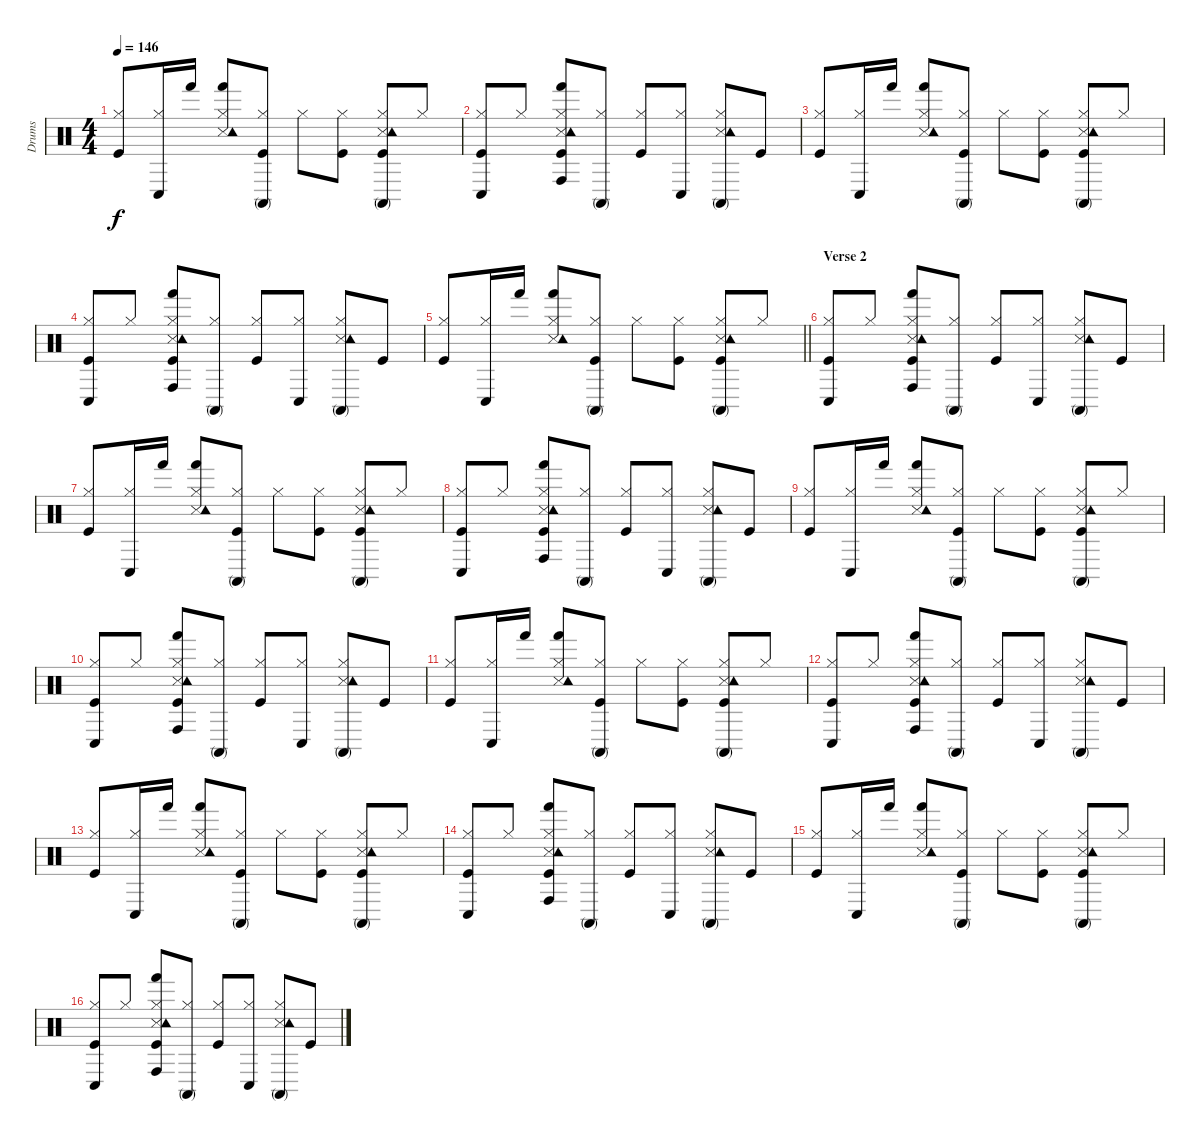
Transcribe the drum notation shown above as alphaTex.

\track ("Drums" "Drums") {instrument percussion}
\staff {score}
\articulation defaults
\ts (4 4)
\tempo 146
\clef neutral
\ks c
("Kick (hit)" "Hi-Hat (closed)").8{dy f} ("Hi-Hat (closed)" "Conga low (hit)").16 "Hand (hit)".16 ("Snare (side stick) 3" "Hi-Hat (closed)" "Tambourine (hit)" "Hand (hit)").8 ("Kick (hit)" "Hi-Hat (closed)" "Conga high (mute)").8 "Hi-Hat (closed)".8 ("Kick (hit)" "Hi-Hat (closed)").8 ("Kick (hit)" "Snare (side stick) 3" "Hi-Hat (closed)" "Tambourine (hit)" "Conga high (mute)").8 "Hi-Hat (closed)".8 |
("Kick (hit)" "Hi-Hat (closed)" "Conga low (hit)").8 "Hi-Hat (closed)".8 ("Kick (hit)" "Snare (side stick) 3" "Hi-Hat (closed)" "Tambourine (hit)" "Hand (hit)" "Conga high (hit)").8 ("Hi-Hat (closed)" "Conga high (mute)").8 ("Kick (hit)" "Hi-Hat (closed)").8 ("Hi-Hat (closed)" "Conga low (hit)").8 ("Snare (side stick) 3" "Hi-Hat (closed)" "Tambourine (hit)" "Conga high (mute)").8 "Kick (hit)".8 |
("Kick (hit)" "Hi-Hat (closed)").8 ("Hi-Hat (closed)" "Conga low (hit)").16 "Hand (hit)".16 ("Snare (side stick) 3" "Hi-Hat (closed)" "Tambourine (hit)" "Hand (hit)").8 ("Kick (hit)" "Hi-Hat (closed)" "Conga high (mute)").8 "Hi-Hat (closed)".8 ("Kick (hit)" "Hi-Hat (closed)").8 ("Kick (hit)" "Snare (side stick) 3" "Hi-Hat (closed)" "Tambourine (hit)" "Conga high (mute)").8 "Hi-Hat (closed)".8 |
("Kick (hit)" "Hi-Hat (closed)" "Conga low (hit)").8 "Hi-Hat (closed)".8 ("Kick (hit)" "Snare (side stick) 3" "Hi-Hat (closed)" "Tambourine (hit)" "Hand (hit)" "Conga high (hit)").8 ("Hi-Hat (closed)" "Conga high (mute)").8 ("Kick (hit)" "Hi-Hat (closed)").8 ("Hi-Hat (closed)" "Conga low (hit)").8 ("Snare (side stick) 3" "Hi-Hat (closed)" "Tambourine (hit)" "Conga high (mute)").8 "Kick (hit)".8 |
\barLineRight lightlight
("Kick (hit)" "Hi-Hat (closed)").8 ("Hi-Hat (closed)" "Conga low (hit)").16 "Hand (hit)".16 ("Snare (side stick) 3" "Hi-Hat (closed)" "Tambourine (hit)" "Hand (hit)").8 ("Kick (hit)" "Hi-Hat (closed)" "Conga high (mute)").8 "Hi-Hat (closed)".8 ("Kick (hit)" "Hi-Hat (closed)").8 ("Kick (hit)" "Snare (side stick) 3" "Hi-Hat (closed)" "Tambourine (hit)" "Conga high (mute)").8 "Hi-Hat (closed)".8 |
\section ("" "Verse 2")
("Kick (hit)" "Hi-Hat (closed)" "Conga low (hit)").8 "Hi-Hat (closed)".8 ("Kick (hit)" "Snare (side stick) 3" "Hi-Hat (closed)" "Tambourine (hit)" "Hand (hit)" "Conga high (hit)").8 ("Hi-Hat (closed)" "Conga high (mute)").8 ("Kick (hit)" "Hi-Hat (closed)").8 ("Hi-Hat (closed)" "Conga low (hit)").8 ("Snare (side stick) 3" "Hi-Hat (closed)" "Tambourine (hit)" "Conga high (mute)").8 "Kick (hit)".8 |
("Kick (hit)" "Hi-Hat (closed)").8 ("Hi-Hat (closed)" "Conga low (hit)").16 "Hand (hit)".16 ("Snare (side stick) 3" "Hi-Hat (closed)" "Tambourine (hit)" "Hand (hit)").8 ("Kick (hit)" "Hi-Hat (closed)" "Conga high (mute)").8 "Hi-Hat (closed)".8 ("Kick (hit)" "Hi-Hat (closed)").8 ("Kick (hit)" "Snare (side stick) 3" "Hi-Hat (closed)" "Tambourine (hit)" "Conga high (mute)").8 "Hi-Hat (closed)".8 |
("Kick (hit)" "Hi-Hat (closed)" "Conga low (hit)").8 "Hi-Hat (closed)".8 ("Kick (hit)" "Snare (side stick) 3" "Hi-Hat (closed)" "Tambourine (hit)" "Hand (hit)" "Conga high (hit)").8 ("Hi-Hat (closed)" "Conga high (mute)").8 ("Kick (hit)" "Hi-Hat (closed)").8 ("Hi-Hat (closed)" "Conga low (hit)").8 ("Snare (side stick) 3" "Hi-Hat (closed)" "Tambourine (hit)" "Conga high (mute)").8 "Kick (hit)".8 |
("Kick (hit)" "Hi-Hat (closed)").8 ("Hi-Hat (closed)" "Conga low (hit)").16 "Hand (hit)".16 ("Snare (side stick) 3" "Hi-Hat (closed)" "Tambourine (hit)" "Hand (hit)").8 ("Kick (hit)" "Hi-Hat (closed)" "Conga high (mute)").8 "Hi-Hat (closed)".8 ("Kick (hit)" "Hi-Hat (closed)").8 ("Kick (hit)" "Snare (side stick) 3" "Hi-Hat (closed)" "Tambourine (hit)" "Conga high (mute)").8 "Hi-Hat (closed)".8 |
("Kick (hit)" "Hi-Hat (closed)" "Conga low (hit)").8 "Hi-Hat (closed)".8 ("Kick (hit)" "Snare (side stick) 3" "Hi-Hat (closed)" "Tambourine (hit)" "Hand (hit)" "Conga high (hit)").8 ("Hi-Hat (closed)" "Conga high (mute)").8 ("Kick (hit)" "Hi-Hat (closed)").8 ("Hi-Hat (closed)" "Conga low (hit)").8 ("Snare (side stick) 3" "Hi-Hat (closed)" "Tambourine (hit)" "Conga high (mute)").8 "Kick (hit)".8 |
("Kick (hit)" "Hi-Hat (closed)").8 ("Hi-Hat (closed)" "Conga low (hit)").16 "Hand (hit)".16 ("Snare (side stick) 3" "Hi-Hat (closed)" "Tambourine (hit)" "Hand (hit)").8 ("Kick (hit)" "Hi-Hat (closed)" "Conga high (mute)").8 "Hi-Hat (closed)".8 ("Kick (hit)" "Hi-Hat (closed)").8 ("Kick (hit)" "Snare (side stick) 3" "Hi-Hat (closed)" "Tambourine (hit)" "Conga high (mute)").8 "Hi-Hat (closed)".8 |
("Kick (hit)" "Hi-Hat (closed)" "Conga low (hit)").8 "Hi-Hat (closed)".8 ("Kick (hit)" "Snare (side stick) 3" "Hi-Hat (closed)" "Tambourine (hit)" "Hand (hit)" "Conga high (hit)").8 ("Hi-Hat (closed)" "Conga high (mute)").8 ("Kick (hit)" "Hi-Hat (closed)").8 ("Hi-Hat (closed)" "Conga low (hit)").8 ("Snare (side stick) 3" "Hi-Hat (closed)" "Tambourine (hit)" "Conga high (mute)").8 "Kick (hit)".8 |
("Kick (hit)" "Hi-Hat (closed)").8 ("Hi-Hat (closed)" "Conga low (hit)").16 "Hand (hit)".16 ("Snare (side stick) 3" "Hi-Hat (closed)" "Tambourine (hit)" "Hand (hit)").8 ("Kick (hit)" "Hi-Hat (closed)" "Conga high (mute)").8 "Hi-Hat (closed)".8 ("Kick (hit)" "Hi-Hat (closed)").8 ("Kick (hit)" "Snare (side stick) 3" "Hi-Hat (closed)" "Tambourine (hit)" "Conga high (mute)").8 "Hi-Hat (closed)".8 |
("Kick (hit)" "Hi-Hat (closed)" "Conga low (hit)").8 "Hi-Hat (closed)".8 ("Kick (hit)" "Snare (side stick) 3" "Hi-Hat (closed)" "Tambourine (hit)" "Hand (hit)" "Conga high (hit)").8 ("Hi-Hat (closed)" "Conga high (mute)").8 ("Kick (hit)" "Hi-Hat (closed)").8 ("Hi-Hat (closed)" "Conga low (hit)").8 ("Snare (side stick) 3" "Hi-Hat (closed)" "Tambourine (hit)" "Conga high (mute)").8 "Kick (hit)".8 |
("Kick (hit)" "Hi-Hat (closed)").8 ("Hi-Hat (closed)" "Conga low (hit)").16 "Hand (hit)".16 ("Snare (side stick) 3" "Hi-Hat (closed)" "Tambourine (hit)" "Hand (hit)").8 ("Kick (hit)" "Hi-Hat (closed)" "Conga high (mute)").8 "Hi-Hat (closed)".8 ("Kick (hit)" "Hi-Hat (closed)").8 ("Kick (hit)" "Snare (side stick) 3" "Hi-Hat (closed)" "Tambourine (hit)" "Conga high (mute)").8 "Hi-Hat (closed)".8 |
("Kick (hit)" "Hi-Hat (closed)" "Conga low (hit)").8 "Hi-Hat (closed)".8 ("Kick (hit)" "Snare (side stick) 3" "Hi-Hat (closed)" "Tambourine (hit)" "Hand (hit)" "Conga high (hit)").8 ("Hi-Hat (closed)" "Conga high (mute)").8 ("Kick (hit)" "Hi-Hat (closed)").8 ("Hi-Hat (closed)" "Conga low (hit)").8 ("Snare (side stick) 3" "Hi-Hat (closed)" "Tambourine (hit)" "Conga high (mute)").8 "Kick (hit)".8
